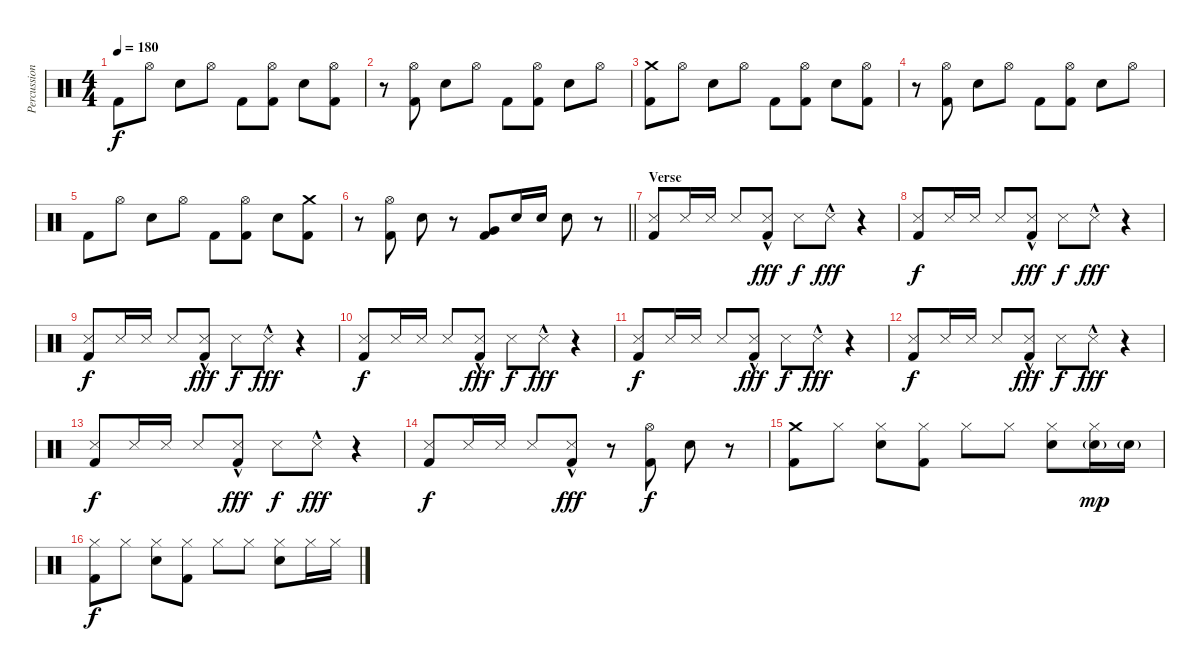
\track ("Percussion" "Percussion") {instrument percussion}
\staff {score}
\articulation defaults
\ts (4 4)
\tempo 180
\clef neutral
\ks c "Kick (hit) 2".8{dy f} "Hi-Hat (open)".8 "Snare (hit) 2".8 "Hi-Hat (open)".8 "Kick (hit) 2".8
("Hi-Hat (open)" "Kick (hit) 2").8 "Snare (hit) 2".8 ("Hi-Hat (open)" "Kick (hit) 2").8 |
r.8 ("Hi-Hat (open)" "Kick (hit) 2").8 "Snare (hit) 2".8 "Hi-Hat (open)".8 "Kick (hit) 2".8 ("Hi-Hat (open)" "Kick (hit) 2").8 "Snare (hit) 2".8 "Hi-Hat (open)".8 |
("Crash medium (hit)" "Kick (hit) 2").8 "Hi-Hat (open)".8 "Snare (hit) 2".8 "Hi-Hat (open)".8 "Kick (hit) 2".8 ("Hi-Hat (open)" "Kick (hit) 2").8 "Snare (hit) 2".8 ("Hi-Hat (open)" "Kick (hit) 2").8 |
r.8 ("Hi-Hat (open)" "Kick (hit) 2").8 "Snare (hit) 2".8 "Hi-Hat (open)".8 "Kick (hit) 2".8 ("Hi-Hat (open)" "Kick (hit) 2").8 "Snare (hit) 2".8 "Hi-Hat (open)".8 |
"Kick (hit) 2".8 "Hi-Hat (open)".8 "Snare (hit) 2".8 "Hi-Hat (open)".8 "Kick (hit) 2".8 ("Hi-Hat (open)" "Kick (hit) 2").8 "Snare (hit) 2".8 ("Crash medium (hit)" "Kick (hit) 2").8 |
\barLineRight lightlight
r.8 ("Hi-Hat (open)" "Kick (hit) 2").8 "Snare (hit) 2".8 r.8 ("Very Low Tom (hit)" "Kick (hit) 2").8 "Snare (hit) 2".16 "Snare (hit) 2".16 "Snare (hit) 2".8 r.8 |
\section ("" "Verse")
("Snare (side stick) 3" "Kick (hit) 2").8 "Snare (side stick) 3".16 "Snare (side stick) 3".16 "Snare (side stick) 3".8 ("Snare (side stick) 3"{hac} "Kick (hit) 2").8{dy fff} "Snare (side stick) 3".8{dy f} "Snare (side stick) 3"{hac}.8{dy fff} r.4 |
("Snare (side stick) 3" "Kick (hit) 2").8{dy f} "Snare (side stick) 3".16 "Snare (side stick) 3".16 "Snare (side stick) 3".8 ("Snare (side stick) 3"{hac} "Kick (hit) 2").8{dy fff} "Snare (side stick) 3".8{dy f} "Snare (side stick) 3"{hac}.8{dy fff} r.4 |
("Snare (side stick) 3" "Kick (hit) 2").8{dy f} "Snare (side stick) 3".16 "Snare (side stick) 3".16 "Snare (side stick) 3".8 ("Snare (side stick) 3"{hac} "Kick (hit) 2").8{dy fff} "Snare (side stick) 3".8{dy f} "Snare (side stick) 3"{hac}.8{dy fff} r.4 |
("Snare (side stick) 3" "Kick (hit) 2").8{dy f} "Snare (side stick) 3".16 "Snare (side stick) 3".16 "Snare (side stick) 3".8 ("Snare (side stick) 3"{hac} "Kick (hit) 2").8{dy fff} "Snare (side stick) 3".8{dy f} "Snare (side stick) 3"{hac}.8{dy fff} r.4 |
("Snare (side stick) 3" "Kick (hit) 2").8{dy f} "Snare (side stick) 3".16 "Snare (side stick) 3".16 "Snare (side stick) 3".8 ("Snare (side stick) 3"{hac} "Kick (hit) 2").8{dy fff} "Snare (side stick) 3".8{dy f} "Snare (side stick) 3"{hac}.8{dy fff} r.4 |
("Snare (side stick) 3" "Kick (hit) 2").8{dy f} "Snare (side stick) 3".16 "Snare (side stick) 3".16 "Snare (side stick) 3".8 ("Snare (side stick) 3"{hac} "Kick (hit) 2").8{dy fff} "Snare (side stick) 3".8{dy f} "Snare (side stick) 3"{hac}.8{dy fff} r.4 |
("Snare (side stick) 3" "Kick (hit) 2").8{dy f} "Snare (side stick) 3".16 "Snare (side stick) 3".16 "Snare (side stick) 3".8 ("Snare (side stick) 3"{hac} "Kick (hit) 2").8{dy fff} "Snare (side stick) 3".8{dy f} "Snare (side stick) 3"{hac}.8{dy fff} r.4 |
("Snare (side stick) 3" "Kick (hit) 2").8{dy f} "Snare (side stick) 3".16 "Snare (side stick) 3".16 "Snare (side stick) 3".8 ("Snare (side stick) 3"{hac} "Kick (hit) 2").8{dy fff} r.8 ("Hi-Hat (open)" "Kick (hit) 2").8{dy f} "Snare (hit) 2".8 r.8 |
("Crash medium (hit)" "Kick (hit) 2").8 "Hi-Hat (closed)".8 ("Hi-Hat (closed)" "Snare (hit) 2").8 ("Hi-Hat (closed)" "Kick (hit) 2").8 "Hi-Hat (closed)".8 "Hi-Hat (closed)".8 ("Hi-Hat (closed)" "Snare (hit) 2").8 ("Hi-Hat (closed)" "Snare (hit) 2"{g}).16{dy mp} "Snare (hit) 2"{g}.16 |
("Hi-Hat (closed)" "Kick (hit) 2").8{dy f} "Hi-Hat (closed)".8 ("Hi-Hat (closed)" "Snare (hit) 2").8 ("Hi-Hat (closed)" "Kick (hit) 2").8 "Hi-Hat (closed)".8 "Hi-Hat (closed)".8 ("Hi-Hat (closed)" "Snare (hit) 2").8 "Hi-Hat (closed)".16 "Hi-Hat (closed)".16
